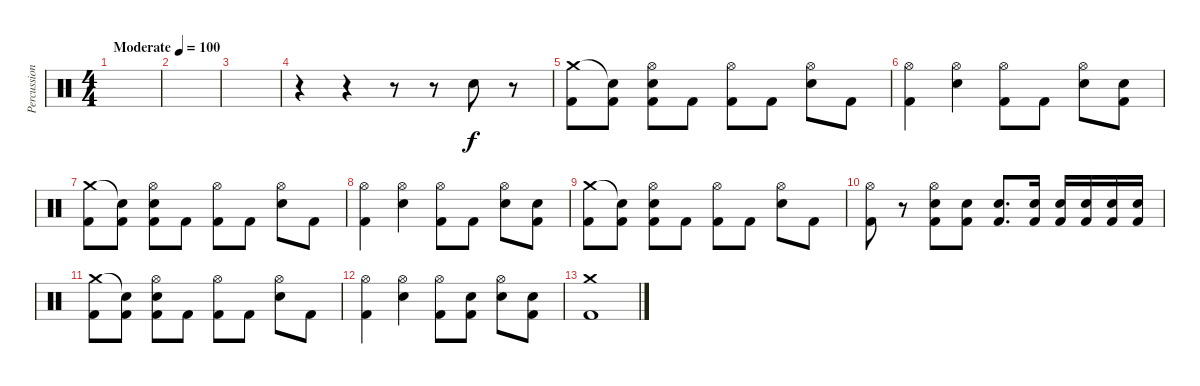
\track ("Percussion" "Percussion") {instrument percussion}
\staff {score}
\articulation defaults
\ts (4 4)
\tempo (100 "Moderate")
\clef neutral
\ks c
|
|
|
r.4 r.4 r.8 r.8 "Electric Snare (hit)".8 r.8 |
("Crash medium (hit)" "Kick (hit) 2").8 ("Snare (hit)"{t} "Kick (hit) 2").8 ("Hi-Hat (open)" "Electric Snare (hit)" "Kick (hit) 2").8 "Kick (hit) 2".8 ("Hi-Hat (open)" "Kick (hit) 2").8 "Kick (hit) 2".8 ("Hi-Hat (open)" "Electric Snare (hit)").8 "Kick (hit) 2".8 |
("Hi-Hat (open)" "Kick (hit) 2").4 ("Hi-Hat (open)" "Electric Snare (hit)").4 ("Hi-Hat (open)" "Kick (hit) 2").8 "Kick (hit) 2".8 ("Hi-Hat (open)" "Electric Snare (hit)").8 ("Electric Snare (hit)" "Kick (hit) 2").8 |
("Crash medium (hit)" "Kick (hit) 2").8 ("Snare (hit)"{t} "Kick (hit) 2").8 ("Hi-Hat (open)" "Electric Snare (hit)" "Kick (hit) 2").8 "Kick (hit) 2".8 ("Hi-Hat (open)" "Kick (hit) 2").8 "Kick (hit) 2".8 ("Hi-Hat (open)" "Electric Snare (hit)").8 "Kick (hit) 2".8 |
("Hi-Hat (open)" "Kick (hit) 2").4 ("Hi-Hat (open)" "Electric Snare (hit)").4 ("Hi-Hat (open)" "Kick (hit) 2").8 "Kick (hit) 2".8 ("Hi-Hat (open)" "Electric Snare (hit)").8 ("Electric Snare (hit)" "Kick (hit) 2").8 |
("Crash medium (hit)" "Kick (hit) 2").8 ("Snare (hit)"{t} "Kick (hit) 2").8 ("Hi-Hat (open)" "Electric Snare (hit)" "Kick (hit) 2").8 "Kick (hit) 2".8 ("Hi-Hat (open)" "Kick (hit) 2").8 "Kick (hit) 2".8 ("Hi-Hat (open)" "Electric Snare (hit)").8 "Kick (hit) 2".8 |
("Hi-Hat (open)" "Kick (hit) 2").8 r.8 ("Hi-Hat (open)" "Electric Snare (hit)" "Kick (hit) 2").8 ("Electric Snare (hit)" "Kick (hit) 2").8 ("Electric Snare (hit)" "Kick (hit) 2").8{d} ("Electric Snare (hit)" "Kick (hit) 2").16 ("Electric Snare (hit)" "Kick (hit) 2").16 ("Electric Snare (hit)" "Kick (hit) 2").16 ("Electric Snare (hit)" "Kick (hit) 2").16 ("Electric Snare (hit)" "Kick (hit) 2").16 |
("Crash medium (hit)" "Kick (hit) 2").8 ("Snare (hit)"{t} "Kick (hit) 2").8 ("Hi-Hat (open)" "Electric Snare (hit)" "Kick (hit) 2").8 "Kick (hit) 2".8 ("Hi-Hat (open)" "Kick (hit) 2").8 "Kick (hit) 2".8 ("Hi-Hat (open)" "Electric Snare (hit)").8 "Kick (hit) 2".8 |
("Hi-Hat (open)" "Kick (hit) 2").4 ("Hi-Hat (open)" "Electric Snare (hit)").4 ("Hi-Hat (open)" "Kick (hit) 2").8 ("Electric Snare (hit)" "Kick (hit) 2").8 ("Hi-Hat (open)" "Electric Snare (hit)").8 ("Electric Snare (hit)" "Kick (hit) 2").8 |
("Crash medium (hit)" "Kick (hit) 2").1
